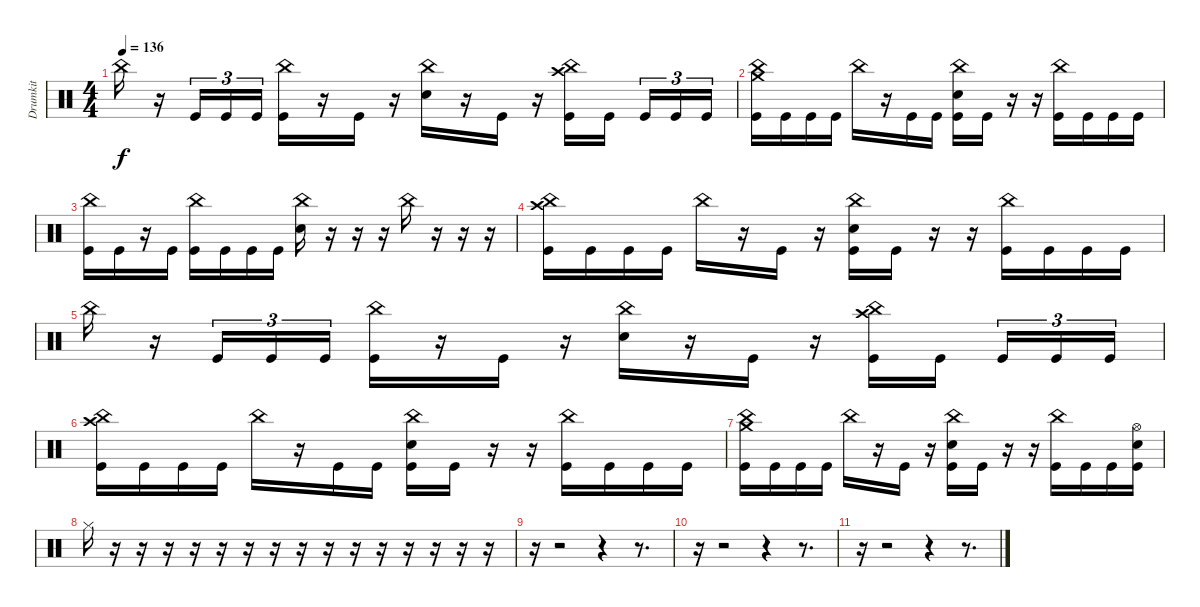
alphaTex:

\track ("Drumkit" "Drumkit") {instrument percussion}
\staff {score}
\articulation defaults
\ts (4 4)
\tempo 136
\clef neutral
\ks c "China (hit)".16{dy f}
r.16 "Kick (hit)".16{tu (3 2)} "Kick (hit)".16{tu (3 2)} "Kick (hit)".16{tu (3 2)} ("China (hit)" "Kick (hit)").16 r.16 "Kick (hit)".16 r.16 ("China (hit)" "Snare (hit) 2").16 r.16 "Kick (hit)".16 r.16 ("China (hit)" "Crash high (hit)" "Kick (hit)").16 "Kick (hit)".16 "Kick (hit)".16{tu (3 2)} "Kick (hit)".16{tu (3 2)} "Kick (hit)".16{tu (3 2)} |
("China (hit)" "Crash medium (hit)" "Kick (hit)").16 "Kick (hit)".16 "Kick (hit)".16 "Kick (hit)".16 "China (hit)".16 r.16 "Kick (hit)".16 "Kick (hit)".16 ("China (hit)" "Snare (hit) 2" "Kick (hit)").16 "Kick (hit)".16 r.16 r.16 ("China (hit)" "Kick (hit)").16 "Kick (hit)".16 "Kick (hit)".16 "Kick (hit)".16 |
("China (hit)" "Kick (hit)").16 "Kick (hit)".16 r.16 "Kick (hit)".16 ("China (hit)" "Kick (hit)").16 "Kick (hit)".16 "Kick (hit)".16 "Kick (hit)".16 ("China (hit)" "Snare (hit) 2").16 r.16 r.16 r.16 "China (hit)".16 r.16 r.16 r.16 |
("China (hit)" "Crash high (hit)" "Kick (hit)").16 "Kick (hit)".16 "Kick (hit)".16 "Kick (hit)".16 "China (hit)".16 r.16 "Kick (hit)".16 r.16 ("China (hit)" "Snare (hit) 2" "Kick (hit)").16 "Kick (hit)".16 r.16 r.16 ("China (hit)" "Kick (hit)").16 "Kick (hit)".16 "Kick (hit)".16 "Kick (hit)".16 |
"China (hit)".16 r.16 "Kick (hit)".16{tu (3 2)} "Kick (hit)".16{tu (3 2)} "Kick (hit)".16{tu (3 2)} ("China (hit)" "Kick (hit)").16 r.16 "Kick (hit)".16 r.16 ("China (hit)" "Snare (hit) 2").16 r.16 "Kick (hit)".16 r.16 ("China (hit)" "Crash high (hit)" "Kick (hit)").16 "Kick (hit)".16 "Kick (hit)".16{tu (3 2)} "Kick (hit)".16{tu (3 2)} "Kick (hit)".16{tu (3 2)} |
("China (hit)" "Crash high (hit)" "Kick (hit)").16 "Kick (hit)".16 "Kick (hit)".16 "Kick (hit)".16 "China (hit)".16 r.16 "Kick (hit)".16 "Kick (hit)".16 ("China (hit)" "Snare (hit) 2" "Kick (hit)").16 "Kick (hit)".16 r.16 r.16 ("China (hit)" "Kick (hit)").16 "Kick (hit)".16 "Kick (hit)".16 "Kick (hit)".16 |
("China (hit)" "Crash medium (hit)" "Kick (hit)").16 "Kick (hit)".16 "Kick (hit)".16 "Kick (hit)".16 "China (hit)".16 r.16 "Kick (hit)".16 r.16 ("China (hit)" "Snare (hit) 2" "Kick (hit)").16 "Kick (hit)".16 r.16 r.16 ("China (hit)" "Kick (hit)").16 "Kick (hit)".16 "Kick (hit)".16 ("Hi-Hat (open)" "Snare (hit) 2" "Kick (hit)").16 |
"Hi-Hat (closed)".16 r.16 r.16 r.16 r.16 r.16 r.16 r.16 r.16 r.16 r.16 r.16 r.16 r.16 r.16 r.16 |
r.16 r.2 r.4 r.8{d} |
r.16 r.2 r.4 r.8{d} |
r.16 r.2 r.4 r.8{d}
